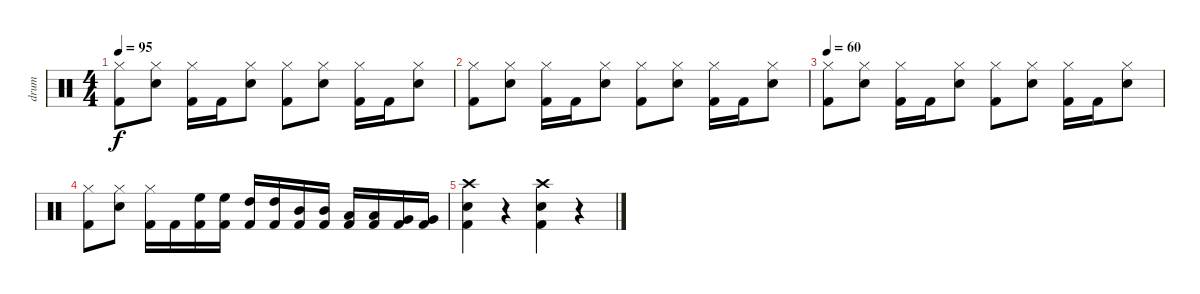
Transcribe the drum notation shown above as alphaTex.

\track ("drum" "drum") {instrument percussion}
\staff {score}
\articulation defaults
\ts (4 4)
\tempo 95
\clef neutral
\ks c
("Hi-Hat (closed)" "Kick (hit) 2").8{dy f} ("Hi-Hat (closed)" "Snare (hit) 2").8 ("Hi-Hat (closed)" "Kick (hit) 2").16 "Kick (hit) 2".16 ("Hi-Hat (closed)" "Snare (hit) 2").8 ("Hi-Hat (closed)" "Kick (hit) 2").8 ("Hi-Hat (closed)" "Snare (hit) 2").8 ("Hi-Hat (closed)" "Kick (hit) 2").16 "Kick (hit) 2".16 ("Hi-Hat (closed)" "Snare (hit) 2").8 |
("Hi-Hat (closed)" "Kick (hit) 2").8 ("Hi-Hat (closed)" "Snare (hit) 2").8 ("Hi-Hat (closed)" "Kick (hit) 2").16 "Kick (hit) 2".16 ("Hi-Hat (closed)" "Snare (hit) 2").8 ("Hi-Hat (closed)" "Kick (hit) 2").8 ("Hi-Hat (closed)" "Snare (hit) 2").8 ("Hi-Hat (closed)" "Kick (hit) 2").16 "Kick (hit) 2".16 ("Hi-Hat (closed)" "Snare (hit) 2").8 |
\tempo 60
("Hi-Hat (closed)" "Kick (hit) 2").8 ("Hi-Hat (closed)" "Snare (hit) 2").8 ("Hi-Hat (closed)" "Kick (hit) 2").16 "Kick (hit) 2".16 ("Hi-Hat (closed)" "Snare (hit) 2").8 ("Hi-Hat (closed)" "Kick (hit) 2").8 ("Hi-Hat (closed)" "Snare (hit) 2").8 ("Hi-Hat (closed)" "Kick (hit) 2").16 "Kick (hit) 2".16 ("Hi-Hat (closed)" "Snare (hit) 2").8 |
("Hi-Hat (closed)" "Kick (hit) 2").8 ("Hi-Hat (closed)" "Snare (hit) 2").8 ("Hi-Hat (closed)" "Kick (hit) 2").16 "Kick (hit) 2".16 ("High Floor Tom (hit)" "Kick (hit) 2").16 ("High Floor Tom (hit)" "Kick (hit) 2").16 ("High Tom (hit)" "Kick (hit) 2").16 ("High Tom (hit)" "Kick (hit) 2").16 ("Mid Tom (hit)" "Kick (hit) 2").16 ("Mid Tom (hit)" "Kick (hit) 2").16 ("Low Tom (hit)" "Kick (hit) 2").16 ("Low Tom (hit)" "Kick (hit) 2").16 ("Very Low Tom (hit)" "Kick (hit) 2").16 ("Very Low Tom (hit)" "Kick (hit) 2").16 |
("Crash high (hit)" "Snare (hit) 2" "Kick (hit) 2").4 r.4 ("Crash high (hit)" "Snare (hit) 2" "Kick (hit) 2").4 r.4
